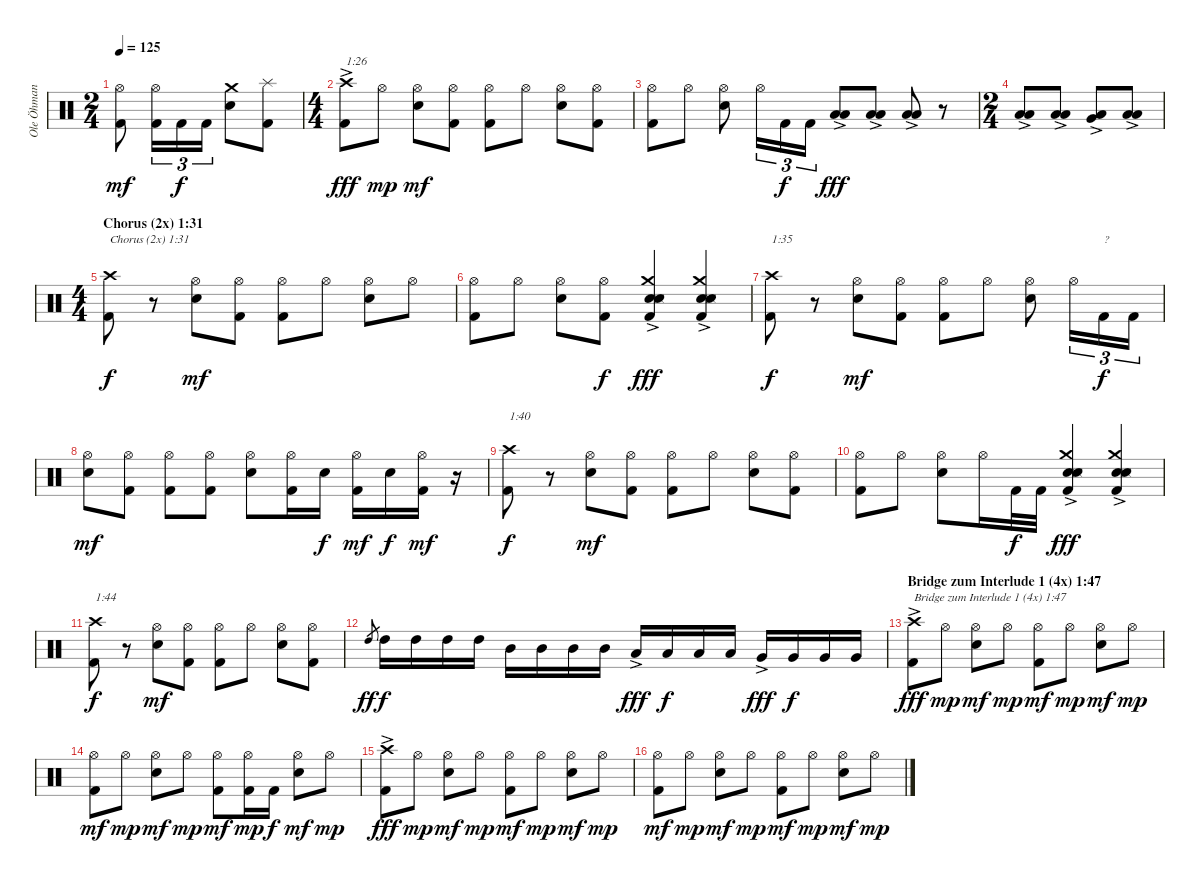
\track ("Ole Öhman" "Ole Öhman") {instrument percussion}
\staff {score}
\articulation defaults
\ts (2 4)
\tempo 125
\clef neutral
\ks c
("Kick (hit) 2" "Hi-Hat (open)").8{dy mf} ("Kick (hit) 2" "Hi-Hat (open)").16{tu (3 2)} "Kick (hit) 2".16{tu (3 2) dy f} "Kick (hit) 2".16{tu (3 2)} ("Electric Snare (hit)" "Crash medium (hit)").8 ("Kick (hit) 2" "Splash (hit)").8 |
\ts (4 4)
("Kick (hit) 2" "Crash high (hit)"{ac}).8{txt "1:26" dy fff} "Hi-Hat (open)".8{dy mp} ("Electric Snare (hit)" "Hi-Hat (open)").8{dy mf} ("Kick (hit) 2" "Hi-Hat (open)").8 ("Kick (hit) 2" "Hi-Hat (open)").8 "Hi-Hat (open)".8 ("Electric Snare (hit)" "Hi-Hat (open)").8 ("Kick (hit) 2" "Hi-Hat (open)").8 |
("Kick (hit) 2" "Hi-Hat (open)").8 "Hi-Hat (open)".8 ("Electric Snare (hit)" "Hi-Hat (open)").8 "Hi-Hat (open)".16{tu (3 2)} "Kick (hit) 2".16{tu (3 2) dy f} "Kick (hit) 2".16{tu (3 2)} ("Low Floor Tom (hit)"{ac} "Low Tom (hit)").8{dy fff} ("Low Floor Tom (hit)"{ac} "Low Tom (hit)").8 ("Low Floor Tom (hit)"{ac} "Low Tom (hit)").8 r.8 |
\ts (2 4)
("Low Floor Tom (hit)"{ac} "Low Tom (hit)").8 ("Low Floor Tom (hit)"{ac} "Low Tom (hit)").8 ("Low Floor Tom (hit)"{ac} "Very Low Tom (hit)"{ac}).8 ("Low Floor Tom (hit)"{ac} "Low Tom (hit)").8 |
\ts (4 4)
\section ("" "Chorus (2x) 1:31")
("Kick (hit) 2" "Crash high (hit)").8{txt "Chorus (2x) 1:31" dy f} r.8 ("Electric Snare (hit)" "Hi-Hat (open)").8{dy mf} ("Kick (hit) 2" "Hi-Hat (open)").8 ("Kick (hit) 2" "Hi-Hat (open)").8 "Hi-Hat (open)".8 ("Electric Snare (hit)" "Hi-Hat (open)").8 "Hi-Hat (open)".8 |
("Kick (hit) 2" "Hi-Hat (open)").8 "Hi-Hat (open)".8 ("Electric Snare (hit)" "Hi-Hat (open)").8 ("Kick (hit) 2" "Hi-Hat (open)").8{dy f} ("Kick (hit) 2" "Electric Snare (hit)"{ac} "Electric Snare (hit)"{ac} "Snare (side stick) 3" "Crash medium (hit)"{ac}).4{dy fff} ("Kick (hit) 2" "Electric Snare (hit)"{ac} "Electric Snare (hit)"{ac} "Snare (side stick) 3" "Crash medium (hit)"{ac}).4 |
("Kick (hit) 2" "Crash high (hit)").8{txt "1:35" dy f} r.8 ("Electric Snare (hit)" "Hi-Hat (open)").8{dy mf} ("Kick (hit) 2" "Hi-Hat (open)").8 ("Kick (hit) 2" "Hi-Hat (open)").8 "Hi-Hat (open)".8 ("Electric Snare (hit)" "Hi-Hat (open)").8 "Hi-Hat (open)".16{tu (3 2)} "Kick (hit) 2".16{tu (3 2) txt "?" dy f} "Kick (hit) 2".16{tu (3 2)} |
("Electric Snare (hit)" "Hi-Hat (open)").8{dy mf} ("Kick (hit) 2" "Hi-Hat (open)").8 ("Kick (hit) 2" "Hi-Hat (open)").8 ("Kick (hit) 2" "Hi-Hat (open)").8 ("Electric Snare (hit)" "Hi-Hat (open)").8 ("Kick (hit) 2" "Hi-Hat (open)").16 "Electric Snare (hit)".16{dy f} ("Kick (hit) 2" "Hi-Hat (open)").16{dy mf} "Electric Snare (hit)".16{dy f} ("Kick (hit) 2" "Hi-Hat (open)").16{dy mf} r.16 |
("Kick (hit) 2" "Crash high (hit)").8{txt "1:40" dy f} r.8 ("Electric Snare (hit)" "Hi-Hat (open)").8{dy mf} ("Kick (hit) 2" "Hi-Hat (open)").8 ("Kick (hit) 2" "Hi-Hat (open)").8 "Hi-Hat (open)".8 ("Electric Snare (hit)" "Hi-Hat (open)").8 ("Kick (hit) 2" "Hi-Hat (open)").8 |
("Kick (hit) 2" "Hi-Hat (open)").8 "Hi-Hat (open)".8 ("Electric Snare (hit)" "Hi-Hat (open)").8 "Hi-Hat (open)".16 "Kick (hit) 2".32{dy f} "Kick (hit) 2".32 ("Kick (hit) 2" "Electric Snare (hit)"{ac} "Electric Snare (hit)"{ac} "Snare (side stick) 3" "Crash medium (hit)"{ac}).4{dy fff} ("Kick (hit) 2" "Electric Snare (hit)"{ac} "Electric Snare (hit)"{ac} "Snare (side stick) 3" "Crash medium (hit)"{ac}).4 |
("Kick (hit) 2" "Crash high (hit)").8{txt "1:44" dy f} r.8 ("Electric Snare (hit)" "Hi-Hat (open)").8{dy mf} ("Kick (hit) 2" "Hi-Hat (open)").8 ("Kick (hit) 2" "Hi-Hat (open)").8 "Hi-Hat (open)".8 ("Electric Snare (hit)" "Hi-Hat (open)").8 ("Kick (hit) 2" "Hi-Hat (open)").8 |
"High Tom (hit)".8{gr dy ff} "High Tom (hit)".16{dy f} "High Tom (hit)".16 "High Tom (hit)".16 "High Tom (hit)".16 "Mid Tom (hit)".16 "Mid Tom (hit)".16 "Mid Tom (hit)".16 "Mid Tom (hit)".16 "Low Tom (hit)"{ac}.16{dy fff} "Low Tom (hit)".16{dy f} "Low Tom (hit)".16 "Low Tom (hit)".16 "Very Low Tom (hit)"{ac}.16{dy fff} "Very Low Tom (hit)".16{dy f} "Very Low Tom (hit)".16 "Very Low Tom (hit)".16 |
\section ("" "Bridge zum Interlude 1 (4x) 1:47")
("Kick (hit) 2" "Crash high (hit)"{ac}).8{txt "Bridge zum Interlude 1 (4x) 1:47" dy fff} "Hi-Hat (open)".8{dy mp} ("Electric Snare (hit)" "Hi-Hat (open)").8{dy mf} "Hi-Hat (open)".8{dy mp} ("Kick (hit) 2" "Hi-Hat (open)").8{dy mf} "Hi-Hat (open)".8{dy mp} ("Electric Snare (hit)" "Hi-Hat (open)").8{dy mf} "Hi-Hat (open)".8{dy mp} |
("Kick (hit) 2" "Hi-Hat (open)").8{dy mf} "Hi-Hat (open)".8{dy mp} ("Electric Snare (hit)" "Hi-Hat (open)").8{dy mf} "Hi-Hat (open)".8{dy mp} ("Kick (hit) 2" "Hi-Hat (open)").8{dy mf} ("Kick (hit) 2" "Hi-Hat (open)").16{dy mp} "Kick (hit) 2".16{dy f} ("Electric Snare (hit)" "Hi-Hat (open)").8{dy mf} "Hi-Hat (open)".8{dy mp} |
("Kick (hit) 2" "Crash high (hit)"{ac}).8{dy fff} "Hi-Hat (open)".8{dy mp} ("Electric Snare (hit)" "Hi-Hat (open)").8{dy mf} "Hi-Hat (open)".8{dy mp} ("Kick (hit) 2" "Hi-Hat (open)").8{dy mf} "Hi-Hat (open)".8{dy mp} ("Electric Snare (hit)" "Hi-Hat (open)").8{dy mf} "Hi-Hat (open)".8{dy mp} |
("Kick (hit) 2" "Hi-Hat (open)").8{dy mf} "Hi-Hat (open)".8{dy mp} ("Electric Snare (hit)" "Hi-Hat (open)").8{dy mf} "Hi-Hat (open)".8{dy mp} ("Kick (hit) 2" "Hi-Hat (open)").8{dy mf} "Hi-Hat (open)".8{dy mp} ("Electric Snare (hit)" "Hi-Hat (open)").8{dy mf} "Hi-Hat (open)".8{dy mp}
